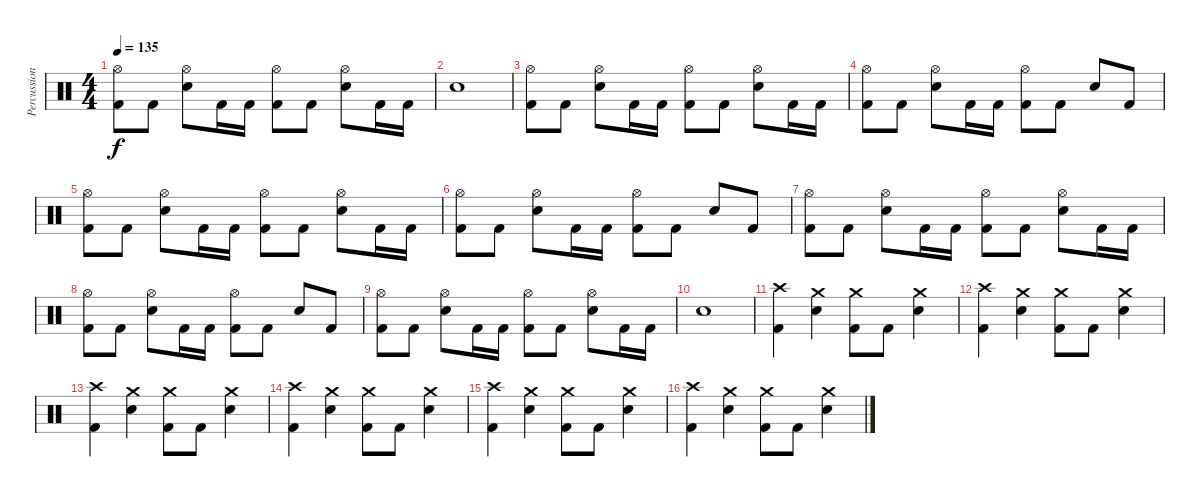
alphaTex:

\track ("Percussion" "Percussion") {instrument percussion}
\staff {score}
\articulation defaults
\ts (4 4)
\tempo 135
\clef neutral
\ks c
("Kick (hit) 2" "Hi-Hat (open)").8{dy f} "Kick (hit) 2".8 ("Snare (hit) 2" "Hi-Hat (open)").8 "Kick (hit) 2".16 "Kick (hit) 2".16 ("Kick (hit) 2" "Hi-Hat (open)").8 "Kick (hit) 2".8 ("Snare (hit) 2" "Hi-Hat (open)").8 "Kick (hit) 2".16 "Kick (hit) 2".16 |
"Snare (hit) 2".1 |
("Kick (hit) 2" "Hi-Hat (open)").8 "Kick (hit) 2".8 ("Snare (hit) 2" "Hi-Hat (open)").8 "Kick (hit) 2".16 "Kick (hit) 2".16 ("Kick (hit) 2" "Hi-Hat (open)").8 "Kick (hit) 2".8 ("Snare (hit) 2" "Hi-Hat (open)").8 "Kick (hit) 2".16 "Kick (hit) 2".16 |
("Kick (hit) 2" "Hi-Hat (open)").8 "Kick (hit) 2".8 ("Snare (hit) 2" "Hi-Hat (open)").8 "Kick (hit) 2".16 "Kick (hit) 2".16 ("Kick (hit) 2" "Hi-Hat (open)").8 "Kick (hit) 2".8 "Snare (hit) 2".8 "Kick (hit) 2".8 |
("Kick (hit) 2" "Hi-Hat (open)").8 "Kick (hit) 2".8 ("Snare (hit) 2" "Hi-Hat (open)").8 "Kick (hit) 2".16 "Kick (hit) 2".16 ("Kick (hit) 2" "Hi-Hat (open)").8 "Kick (hit) 2".8 ("Snare (hit) 2" "Hi-Hat (open)").8 "Kick (hit) 2".16 "Kick (hit) 2".16 |
("Kick (hit) 2" "Hi-Hat (open)").8 "Kick (hit) 2".8 ("Snare (hit) 2" "Hi-Hat (open)").8 "Kick (hit) 2".16 "Kick (hit) 2".16 ("Kick (hit) 2" "Hi-Hat (open)").8 "Kick (hit) 2".8 "Snare (hit) 2".8 "Kick (hit) 2".8 |
("Kick (hit) 2" "Hi-Hat (open)").8 "Kick (hit) 2".8 ("Snare (hit) 2" "Hi-Hat (open)").8 "Kick (hit) 2".16 "Kick (hit) 2".16 ("Kick (hit) 2" "Hi-Hat (open)").8 "Kick (hit) 2".8 ("Snare (hit) 2" "Hi-Hat (open)").8 "Kick (hit) 2".16 "Kick (hit) 2".16 |
("Kick (hit) 2" "Hi-Hat (open)").8 "Kick (hit) 2".8 ("Snare (hit) 2" "Hi-Hat (open)").8 "Kick (hit) 2".16 "Kick (hit) 2".16 ("Kick (hit) 2" "Hi-Hat (open)").8 "Kick (hit) 2".8 "Snare (hit) 2".8 "Kick (hit) 2".8 |
("Kick (hit) 2" "Hi-Hat (open)").8 "Kick (hit) 2".8 ("Snare (hit) 2" "Hi-Hat (open)").8 "Kick (hit) 2".16 "Kick (hit) 2".16 ("Kick (hit) 2" "Hi-Hat (open)").8 "Kick (hit) 2".8 ("Snare (hit) 2" "Hi-Hat (open)").8 "Kick (hit) 2".16 "Kick (hit) 2".16 |
"Snare (hit) 2".1 |
("Kick (hit) 2" "Crash high (hit)").4 ("Snare (hit) 2" "Crash medium (hit)").4 ("Kick (hit) 2" "Crash medium (hit)").8 "Kick (hit) 2".8 ("Snare (hit) 2" "Crash medium (hit)").4 |
("Kick (hit) 2" "Crash high (hit)").4 ("Snare (hit) 2" "Crash medium (hit)").4 ("Kick (hit) 2" "Crash medium (hit)").8 "Kick (hit) 2".8 ("Snare (hit) 2" "Crash medium (hit)").4 |
("Kick (hit) 2" "Crash high (hit)").4 ("Snare (hit) 2" "Crash medium (hit)").4 ("Kick (hit) 2" "Crash medium (hit)").8 "Kick (hit) 2".8 ("Snare (hit) 2" "Crash medium (hit)").4 |
("Kick (hit) 2" "Crash high (hit)").4 ("Snare (hit) 2" "Crash medium (hit)").4 ("Kick (hit) 2" "Crash medium (hit)").8 "Kick (hit) 2".8 ("Snare (hit) 2" "Crash medium (hit)").4 |
("Kick (hit) 2" "Crash high (hit)").4 ("Snare (hit) 2" "Crash medium (hit)").4 ("Kick (hit) 2" "Crash medium (hit)").8 "Kick (hit) 2".8 ("Snare (hit) 2" "Crash medium (hit)").4 |
("Kick (hit) 2" "Crash high (hit)").4 ("Snare (hit) 2" "Crash medium (hit)").4 ("Kick (hit) 2" "Crash medium (hit)").8 "Kick (hit) 2".8 ("Snare (hit) 2" "Crash medium (hit)").4
